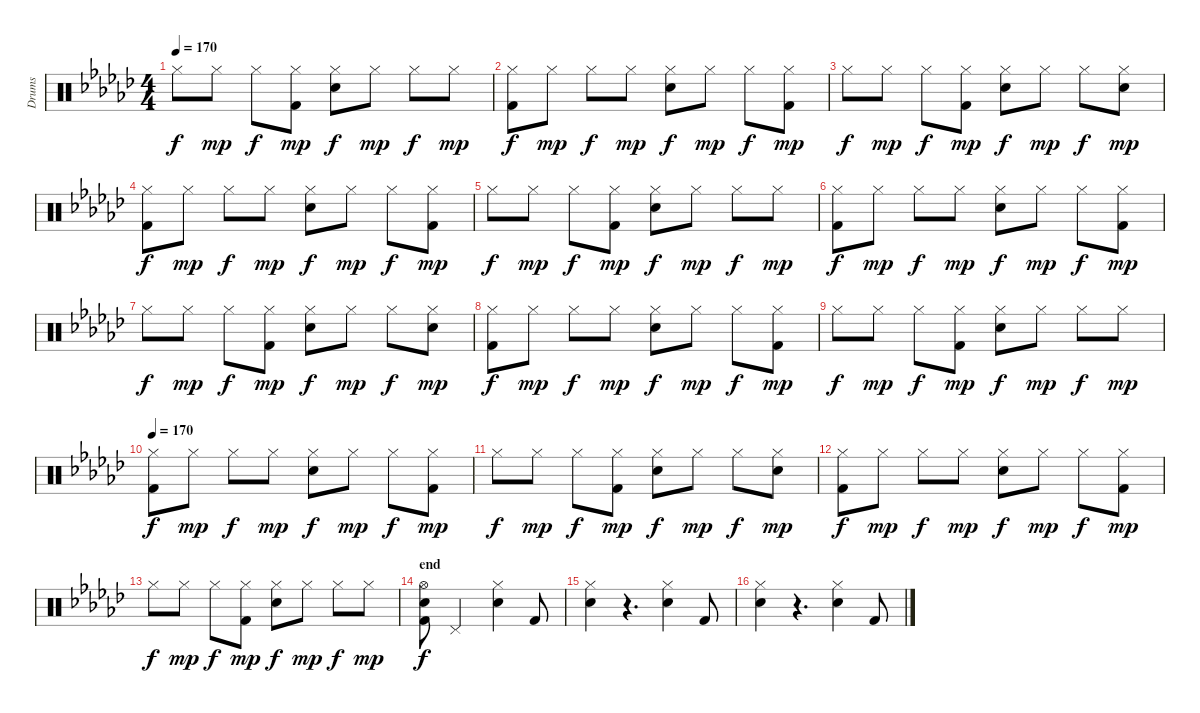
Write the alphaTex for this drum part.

\track ("Drums" "Drums") {instrument percussion}
\staff {score}
\articulation defaults
\ts (4 4)
\tempo 170
\clef neutral
\ks ebminor "Hi-Hat (closed)".8{dy f} "Hi-Hat (closed)".8{dy mp} "Hi-Hat (closed)".8{dy f}
("Hi-Hat (closed)" "Kick (hit) 2").8{dy mp} ("Hi-Hat (closed)" "Snare (hit) 2").8{dy f} "Hi-Hat (closed)".8{dy mp} "Hi-Hat (closed)".8{dy f} "Hi-Hat (closed)".8{dy mp} |
("Hi-Hat (closed)" "Kick (hit) 2").8{dy f} "Hi-Hat (closed)".8{dy mp} "Hi-Hat (closed)".8{dy f} "Hi-Hat (closed)".8{dy mp} ("Hi-Hat (closed)" "Snare (hit) 2").8{dy f} "Hi-Hat (closed)".8{dy mp} "Hi-Hat (closed)".8{dy f} ("Hi-Hat (closed)" "Kick (hit) 2").8{dy mp} |
"Hi-Hat (closed)".8{dy f} "Hi-Hat (closed)".8{dy mp} "Hi-Hat (closed)".8{dy f} ("Hi-Hat (closed)" "Kick (hit) 2").8{dy mp} ("Hi-Hat (closed)" "Snare (hit) 2").8{dy f} "Hi-Hat (closed)".8{dy mp} "Hi-Hat (closed)".8{dy f} ("Hi-Hat (closed)" "Snare (hit) 2").8{dy mp} |
("Hi-Hat (closed)" "Kick (hit) 2").8{dy f} "Hi-Hat (closed)".8{dy mp} "Hi-Hat (closed)".8{dy f} "Hi-Hat (closed)".8{dy mp} ("Hi-Hat (closed)" "Snare (hit) 2").8{dy f} "Hi-Hat (closed)".8{dy mp} "Hi-Hat (closed)".8{dy f} ("Hi-Hat (closed)" "Kick (hit) 2").8{dy mp} |
"Hi-Hat (closed)".8{dy f} "Hi-Hat (closed)".8{dy mp} "Hi-Hat (closed)".8{dy f} ("Hi-Hat (closed)" "Kick (hit) 2").8{dy mp} ("Hi-Hat (closed)" "Snare (hit) 2").8{dy f} "Hi-Hat (closed)".8{dy mp} "Hi-Hat (closed)".8{dy f} "Hi-Hat (closed)".8{dy mp} |
("Hi-Hat (closed)" "Kick (hit) 2").8{dy f} "Hi-Hat (closed)".8{dy mp} "Hi-Hat (closed)".8{dy f} "Hi-Hat (closed)".8{dy mp} ("Hi-Hat (closed)" "Snare (hit) 2").8{dy f} "Hi-Hat (closed)".8{dy mp} "Hi-Hat (closed)".8{dy f} ("Hi-Hat (closed)" "Kick (hit) 2").8{dy mp} |
"Hi-Hat (closed)".8{dy f} "Hi-Hat (closed)".8{dy mp} "Hi-Hat (closed)".8{dy f} ("Hi-Hat (closed)" "Kick (hit) 2").8{dy mp} ("Hi-Hat (closed)" "Snare (hit) 2").8{dy f} "Hi-Hat (closed)".8{dy mp} "Hi-Hat (closed)".8{dy f} ("Hi-Hat (closed)" "Snare (hit) 2").8{dy mp} |
("Hi-Hat (closed)" "Kick (hit) 2").8{dy f} "Hi-Hat (closed)".8{dy mp} "Hi-Hat (closed)".8{dy f} "Hi-Hat (closed)".8{dy mp} ("Hi-Hat (closed)" "Snare (hit) 2").8{dy f} "Hi-Hat (closed)".8{dy mp} "Hi-Hat (closed)".8{dy f} ("Hi-Hat (closed)" "Kick (hit) 2").8{dy mp} |
"Hi-Hat (closed)".8{dy f} "Hi-Hat (closed)".8{dy mp} "Hi-Hat (closed)".8{dy f} ("Hi-Hat (closed)" "Kick (hit) 2").8{dy mp} ("Hi-Hat (closed)" "Snare (hit) 2").8{dy f} "Hi-Hat (closed)".8{dy mp} "Hi-Hat (closed)".8{dy f} "Hi-Hat (closed)".8{dy mp} |
\tempo 170
("Hi-Hat (closed)" "Kick (hit) 2").8{dy f} "Hi-Hat (closed)".8{dy mp} "Hi-Hat (closed)".8{dy f} "Hi-Hat (closed)".8{dy mp} ("Hi-Hat (closed)" "Snare (hit) 2").8{dy f} "Hi-Hat (closed)".8{dy mp} "Hi-Hat (closed)".8{dy f} ("Hi-Hat (closed)" "Kick (hit) 2").8{dy mp} |
"Hi-Hat (closed)".8{dy f} "Hi-Hat (closed)".8{dy mp} "Hi-Hat (closed)".8{dy f} ("Hi-Hat (closed)" "Kick (hit) 2").8{dy mp} ("Hi-Hat (closed)" "Snare (hit) 2").8{dy f} "Hi-Hat (closed)".8{dy mp} "Hi-Hat (closed)".8{dy f} ("Hi-Hat (closed)" "Snare (hit) 2").8{dy mp} |
("Hi-Hat (closed)" "Kick (hit) 2").8{dy f} "Hi-Hat (closed)".8{dy mp} "Hi-Hat (closed)".8{dy f} "Hi-Hat (closed)".8{dy mp} ("Hi-Hat (closed)" "Snare (hit) 2").8{dy f} "Hi-Hat (closed)".8{dy mp} "Hi-Hat (closed)".8{dy f} ("Hi-Hat (closed)" "Kick (hit) 2").8{dy mp} |
"Hi-Hat (closed)".8{dy f} "Hi-Hat (closed)".8{dy mp} "Hi-Hat (closed)".8{dy f} ("Hi-Hat (closed)" "Kick (hit) 2").8{dy mp} ("Hi-Hat (closed)" "Snare (hit) 2").8{dy f} "Hi-Hat (closed)".8{dy mp} "Hi-Hat (closed)".8{dy f} "Hi-Hat (closed)".8{dy mp} |
\section ("" "end")
("Hi-Hat (open)" "Snare (hit) 2" "Kick (hit) 2").8{dy f} "Pedal Hi-Hat (hit)".2 ("Hi-Hat (closed)" "Snare (hit) 2").4 "Kick (hit) 2".8 |
("Hi-Hat (closed)" "Snare (hit) 2").4 r.4{d} ("Hi-Hat (closed)" "Snare (hit) 2").4 "Kick (hit) 2".8 |
("Hi-Hat (closed)" "Snare (hit) 2").4 r.4{d} ("Hi-Hat (closed)" "Snare (hit) 2").4 "Kick (hit) 2".8
